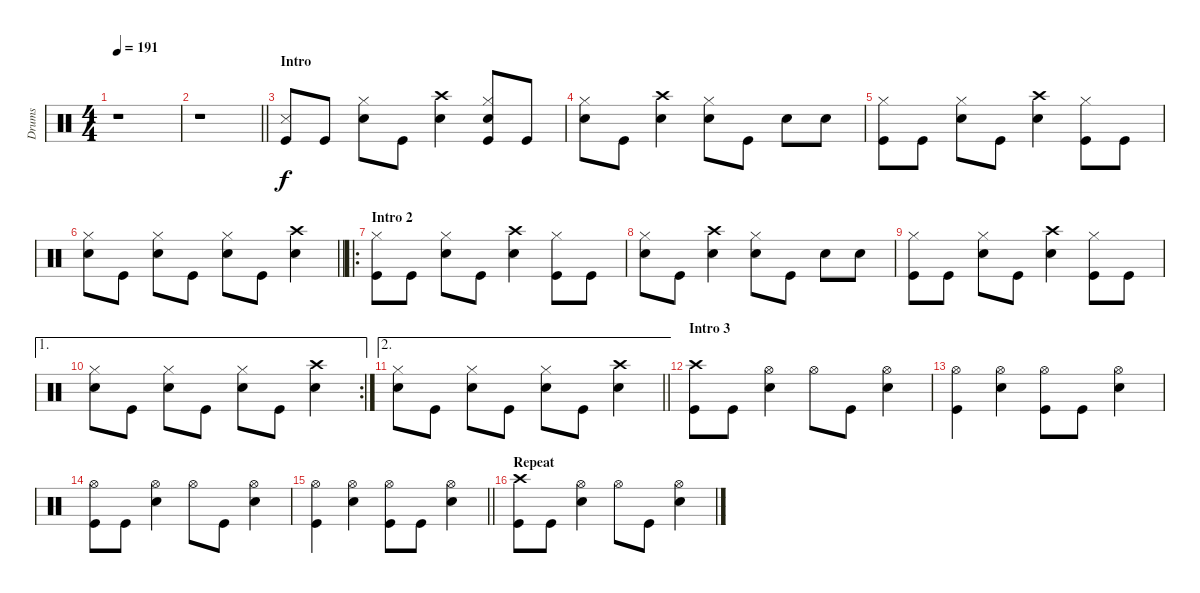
\track ("Drums" "Drums") {instrument percussion}
\staff {score}
\articulation defaults
\ts (4 4)
\tempo 191
\clef neutral
\ks c
r.1{dy f} |
\barLineRight lightlight
r.1 |
\section ("" "Intro")
("Snare (side stick) 3" "Kick (hit)").8 "Kick (hit)".8 ("Hi-Hat (closed)" "Electric Snare (hit)").8 "Kick (hit)".8 ("Crash high (hit)" "Electric Snare (hit)").4 ("Hi-Hat (closed)" "Electric Snare (hit)" "Kick (hit)").8 "Kick (hit)".8 |
("Hi-Hat (closed)" "Electric Snare (hit)").8 "Kick (hit)".8 ("Crash high (hit)" "Electric Snare (hit)").4 ("Hi-Hat (closed)" "Electric Snare (hit)").8 "Kick (hit)".8 "Electric Snare (hit)".8 "Electric Snare (hit)".8 |
("Hi-Hat (closed)" "Kick (hit)").8 "Kick (hit)".8 ("Hi-Hat (closed)" "Electric Snare (hit)").8 "Kick (hit)".8 ("Crash high (hit)" "Electric Snare (hit)").4 ("Hi-Hat (closed)" "Kick (hit)").8 "Kick (hit)".8 |
\barLineRight lightlight
("Hi-Hat (closed)" "Electric Snare (hit)").8 "Kick (hit)".8 ("Hi-Hat (closed)" "Electric Snare (hit)").8 "Kick (hit)".8 ("Hi-Hat (closed)" "Electric Snare (hit)").8 "Kick (hit)".8 ("Crash high (hit)" "Electric Snare (hit)").4 |
\ro
\section ("" "Intro 2")
("Hi-Hat (closed)" "Kick (hit)").8 "Kick (hit)".8 ("Hi-Hat (closed)" "Electric Snare (hit)").8 "Kick (hit)".8 ("Crash high (hit)" "Electric Snare (hit)").4 ("Hi-Hat (closed)" "Kick (hit)").8 "Kick (hit)".8 |
("Hi-Hat (closed)" "Electric Snare (hit)").8 "Kick (hit)".8 ("Crash high (hit)" "Electric Snare (hit)").4 ("Hi-Hat (closed)" "Electric Snare (hit)").8 "Kick (hit)".8 "Electric Snare (hit)".8 "Electric Snare (hit)".8 |
("Hi-Hat (closed)" "Kick (hit)").8 "Kick (hit)".8 ("Hi-Hat (closed)" "Electric Snare (hit)").8 "Kick (hit)".8 ("Crash high (hit)" "Electric Snare (hit)").4 ("Hi-Hat (closed)" "Kick (hit)").8 "Kick (hit)".8 |
\ae 1
\rc 2
("Hi-Hat (closed)" "Electric Snare (hit)").8 "Kick (hit)".8 ("Hi-Hat (closed)" "Electric Snare (hit)").8 "Kick (hit)".8 ("Hi-Hat (closed)" "Electric Snare (hit)").8 "Kick (hit)".8 ("Crash high (hit)" "Electric Snare (hit)").4 |
\ae 2
\barLineRight lightlight
("Hi-Hat (closed)" "Electric Snare (hit)").8 "Kick (hit)".8 ("Hi-Hat (closed)" "Electric Snare (hit)").8 "Kick (hit)".8 ("Hi-Hat (closed)" "Electric Snare (hit)").8 "Kick (hit)".8 ("Crash high (hit)" "Electric Snare (hit)").4 |
\section ("" "Intro 3")
("Crash high (hit)" "Kick (hit)").8 "Kick (hit)".8 ("Hi-Hat (open)" "Electric Snare (hit)").4 "Hi-Hat (open)".8 "Kick (hit)".8 ("Hi-Hat (open)" "Electric Snare (hit)").4 |
("Hi-Hat (open)" "Kick (hit)").4 ("Hi-Hat (open)" "Electric Snare (hit)").4 ("Hi-Hat (open)" "Kick (hit)").8 "Kick (hit)".8 ("Hi-Hat (open)" "Electric Snare (hit)").4 |
("Hi-Hat (open)" "Kick (hit)").8 "Kick (hit)".8 ("Hi-Hat (open)" "Electric Snare (hit)").4 "Hi-Hat (open)".8 "Kick (hit)".8 ("Hi-Hat (open)" "Electric Snare (hit)").4 |
\barLineRight lightlight
("Hi-Hat (open)" "Kick (hit)").4 ("Hi-Hat (open)" "Electric Snare (hit)").4 ("Hi-Hat (open)" "Kick (hit)").8 "Kick (hit)".8 ("Hi-Hat (open)" "Electric Snare (hit)").4 |
\section ("" "Repeat")
("Crash high (hit)" "Kick (hit)").8 "Kick (hit)".8 ("Hi-Hat (open)" "Electric Snare (hit)").4 "Hi-Hat (open)".8 "Kick (hit)".8 ("Hi-Hat (open)" "Electric Snare (hit)").4
